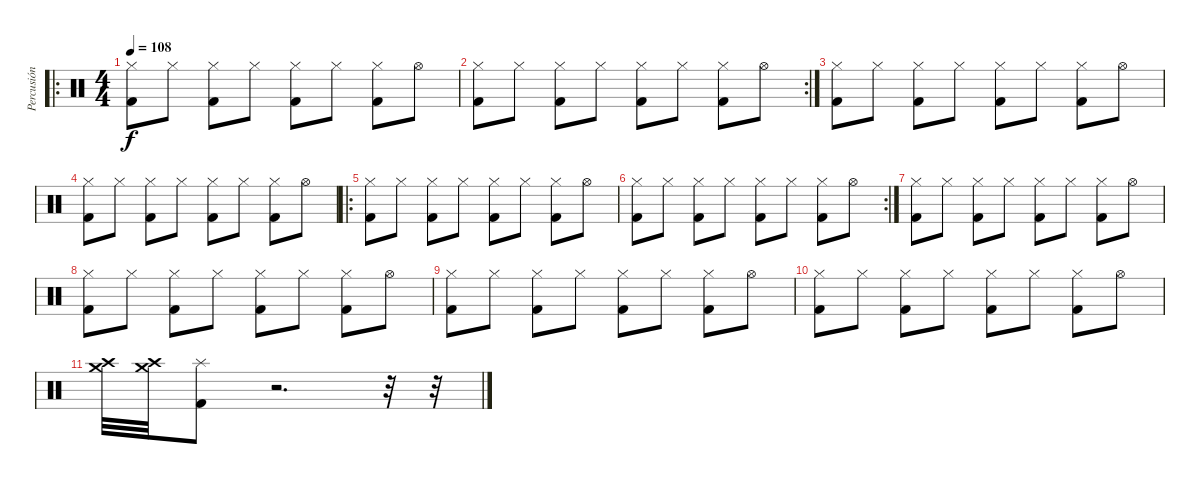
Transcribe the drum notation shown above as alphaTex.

\track ("Percusión" "Percusión") {instrument percussion}
\staff {score}
\articulation defaults
\ro
\ts (4 4)
\tempo 108
\clef neutral
\ks c
("Hi-Hat (closed)" "Kick (hit) 2").8{dy f} "Hi-Hat (closed)".8 ("Hi-Hat (closed)" "Kick (hit) 2").8 "Hi-Hat (closed)".8 ("Hi-Hat (closed)" "Kick (hit) 2").8 "Hi-Hat (closed)".8 ("Hi-Hat (closed)" "Kick (hit) 2").8 "Hi-Hat (open)".8 |
\rc 2
("Hi-Hat (closed)" "Kick (hit) 2").8 "Hi-Hat (closed)".8 ("Hi-Hat (closed)" "Kick (hit) 2").8 "Hi-Hat (closed)".8 ("Hi-Hat (closed)" "Kick (hit) 2").8 "Hi-Hat (closed)".8 ("Hi-Hat (closed)" "Kick (hit) 2").8 "Hi-Hat (open)".8 |
("Hi-Hat (closed)" "Kick (hit) 2").8 "Hi-Hat (closed)".8 ("Hi-Hat (closed)" "Kick (hit) 2").8 "Hi-Hat (closed)".8 ("Hi-Hat (closed)" "Kick (hit) 2").8 "Hi-Hat (closed)".8 ("Hi-Hat (closed)" "Kick (hit) 2").8 "Hi-Hat (open)".8 |
("Hi-Hat (closed)" "Kick (hit) 2").8 "Hi-Hat (closed)".8 ("Hi-Hat (closed)" "Kick (hit) 2").8 "Hi-Hat (closed)".8 ("Hi-Hat (closed)" "Kick (hit) 2").8 "Hi-Hat (closed)".8 ("Hi-Hat (closed)" "Kick (hit) 2").8 "Hi-Hat (open)".8 |
\ro
("Hi-Hat (closed)" "Kick (hit) 2").8 "Hi-Hat (closed)".8 ("Hi-Hat (closed)" "Kick (hit) 2").8 "Hi-Hat (closed)".8 ("Hi-Hat (closed)" "Kick (hit) 2").8 "Hi-Hat (closed)".8 ("Hi-Hat (closed)" "Kick (hit) 2").8 "Hi-Hat (open)".8 |
\rc 2
("Hi-Hat (closed)" "Kick (hit) 2").8 "Hi-Hat (closed)".8 ("Hi-Hat (closed)" "Kick (hit) 2").8 "Hi-Hat (closed)".8 ("Hi-Hat (closed)" "Kick (hit) 2").8 "Hi-Hat (closed)".8 ("Hi-Hat (closed)" "Kick (hit) 2").8 "Hi-Hat (open)".8 |
("Hi-Hat (closed)" "Kick (hit) 2").8 "Hi-Hat (closed)".8 ("Hi-Hat (closed)" "Kick (hit) 2").8 "Hi-Hat (closed)".8 ("Hi-Hat (closed)" "Kick (hit) 2").8 "Hi-Hat (closed)".8 ("Hi-Hat (closed)" "Kick (hit) 2").8 "Hi-Hat (open)".8 |
("Hi-Hat (closed)" "Kick (hit) 2").8 "Hi-Hat (closed)".8 ("Hi-Hat (closed)" "Kick (hit) 2").8 "Hi-Hat (closed)".8 ("Hi-Hat (closed)" "Kick (hit) 2").8 "Hi-Hat (closed)".8 ("Hi-Hat (closed)" "Kick (hit) 2").8 "Hi-Hat (open)".8 |
("Hi-Hat (closed)" "Kick (hit) 2").8 "Hi-Hat (closed)".8 ("Hi-Hat (closed)" "Kick (hit) 2").8 "Hi-Hat (closed)".8 ("Hi-Hat (closed)" "Kick (hit) 2").8 "Hi-Hat (closed)".8 ("Hi-Hat (closed)" "Kick (hit) 2").8 "Hi-Hat (open)".8 |
("Hi-Hat (closed)" "Kick (hit) 2").8 "Hi-Hat (closed)".8 ("Hi-Hat (closed)" "Kick (hit) 2").8 "Hi-Hat (closed)".8 ("Hi-Hat (closed)" "Kick (hit) 2").8 "Hi-Hat (closed)".8 ("Hi-Hat (closed)" "Kick (hit) 2").8 "Hi-Hat (open)".8 |
("Crash medium (hit)" "Crash high (hit)").32 ("Crash high (hit)" "Crash medium (hit)").32 ("Splash (hit)" "Kick (hit) 2").8 r.2{d} r.32 r.32
